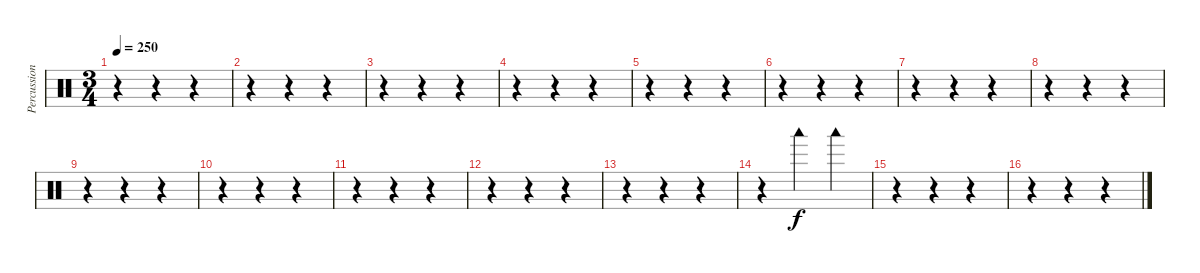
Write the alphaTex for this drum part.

\track ("Percussions" "Percussion") {instrument percussion}
\staff {score}
\articulation defaults
\ts (3 4)
\tempo 250
\clef neutral
\ks c
r.4{dy f} r.4 r.4 |
r.4 r.4 r.4 |
r.4 r.4 r.4 |
r.4 r.4 r.4 |
r.4 r.4 r.4 |
r.4 r.4 r.4 |
r.4 r.4 r.4 |
r.4 r.4 r.4 |
r.4 r.4 r.4 |
r.4 r.4 r.4 |
r.4 r.4 r.4 |
r.4 r.4 r.4 |
r.4 r.4 r.4 |
r.4 "Woodblock low (hit)".4 "Woodblock low (hit)".4 |
r.4 r.4 r.4 |
r.4 r.4 r.4
